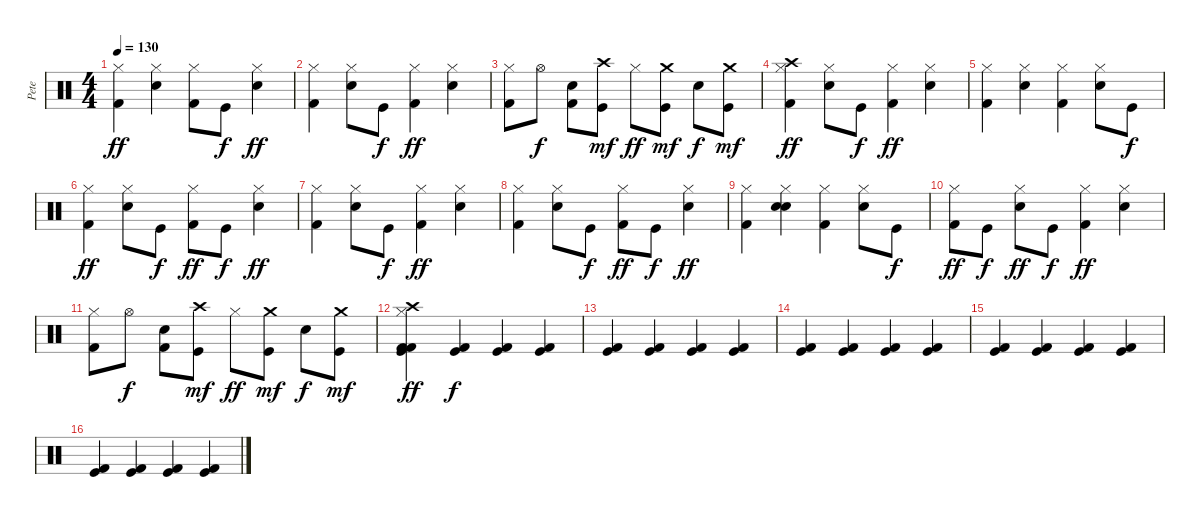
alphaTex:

\track ("Pete" "Pete") {instrument percussion}
\staff {score}
\articulation defaults
\ts (4 4)
\tempo 130
\clef neutral
\ks c
("Hi-Hat (closed)" "Kick (hit) 2").4{dy ff} ("Hi-Hat (closed)" "Snare (hit) 2").4 ("Hi-Hat (closed)" "Kick (hit) 2").8 "Kick (hit)".8{dy f} ("Hi-Hat (closed)" "Snare (hit) 2").4{dy ff} |
("Hi-Hat (closed)" "Kick (hit) 2").4 ("Hi-Hat (closed)" "Snare (hit) 2").8 "Kick (hit)".8{dy f} ("Hi-Hat (closed)" "Kick (hit) 2").4{dy ff} ("Hi-Hat (closed)" "Snare (hit) 2").4 |
("Hi-Hat (closed)" "Kick (hit) 2").8 "Hi-Hat (open)".8{dy f} ("Kick (hit) 2" "Snare (hit) 2").8 ("Kick (hit)" "Crash high (hit)").8{dy mf} "Hi-Hat (closed)".8{dy ff} ("Kick (hit)" "Crash medium (hit)").8{dy mf} "Snare (hit) 2".8{dy f} ("Crash medium (hit)" "Kick (hit)").8{dy mf} |
("Crash high (hit)" "Hi-Hat (closed)" "Kick (hit) 2").4{dy ff} ("Hi-Hat (closed)" "Snare (hit) 2").8 "Kick (hit)".8{dy f} ("Hi-Hat (closed)" "Kick (hit) 2").4{dy ff} ("Hi-Hat (closed)" "Snare (hit) 2").4 |
("Hi-Hat (closed)" "Kick (hit) 2").4 ("Hi-Hat (closed)" "Snare (hit) 2").4 ("Hi-Hat (closed)" "Kick (hit) 2").4 ("Hi-Hat (closed)" "Snare (hit) 2").8 "Kick (hit)".8{dy f} |
("Hi-Hat (closed)" "Kick (hit) 2").4{dy ff} ("Hi-Hat (closed)" "Snare (hit) 2").8 "Kick (hit)".8{dy f} ("Hi-Hat (closed)" "Kick (hit) 2").8{dy ff} "Kick (hit)".8{dy f} ("Hi-Hat (closed)" "Snare (hit) 2").4{dy ff} |
("Hi-Hat (closed)" "Kick (hit) 2").4 ("Hi-Hat (closed)" "Snare (hit) 2").8 "Kick (hit)".8{dy f} ("Hi-Hat (closed)" "Kick (hit) 2").4{dy ff} ("Hi-Hat (closed)" "Snare (hit) 2").4 |
("Hi-Hat (closed)" "Kick (hit) 2").4 ("Hi-Hat (closed)" "Snare (hit) 2").8 "Kick (hit)".8{dy f} ("Hi-Hat (closed)" "Kick (hit) 2").8{dy ff} "Kick (hit)".8{dy f} ("Hi-Hat (closed)" "Snare (hit) 2").4{dy ff} |
("Kick (hit) 2" "Hi-Hat (closed)").4 ("Hi-Hat (closed)" "Snare (hit) 2" "Snare (hit) 2").4 ("Hi-Hat (closed)" "Kick (hit) 2").4 ("Hi-Hat (closed)" "Snare (hit) 2").8 "Kick (hit)".8{dy f} |
("Hi-Hat (closed)" "Kick (hit) 2").8{dy ff} "Kick (hit)".8{dy f} ("Hi-Hat (closed)" "Snare (hit) 2").8{dy ff} "Kick (hit)".8{dy f} ("Hi-Hat (closed)" "Kick (hit) 2").4{dy ff} ("Hi-Hat (closed)" "Snare (hit) 2").4 |
("Hi-Hat (closed)" "Kick (hit) 2").8 "Hi-Hat (open)".8{dy f} ("Kick (hit) 2" "Snare (hit) 2").8 ("Kick (hit)" "Crash high (hit)").8{dy mf} "Hi-Hat (closed)".8{dy ff} ("Kick (hit)" "Crash medium (hit)").8{dy mf} "Snare (hit) 2".8{dy f} ("Crash medium (hit)" "Kick (hit)").8{dy mf} |
("Kick (hit)" "Kick (hit) 2" "Crash high (hit)" "Hi-Hat (closed)" "Kick (hit) 2").4{dy ff} ("Kick (hit)" "Kick (hit) 2").4{dy f} ("Kick (hit)" "Kick (hit) 2").4 ("Kick (hit)" "Kick (hit) 2").4 |
("Kick (hit)" "Kick (hit) 2").4 ("Kick (hit)" "Kick (hit) 2").4 ("Kick (hit)" "Kick (hit) 2").4 ("Kick (hit)" "Kick (hit) 2").4 |
("Kick (hit)" "Kick (hit) 2").4 ("Kick (hit)" "Kick (hit) 2").4 ("Kick (hit)" "Kick (hit) 2").4 ("Kick (hit)" "Kick (hit) 2").4 |
("Kick (hit)" "Kick (hit) 2").4 ("Kick (hit)" "Kick (hit) 2").4 ("Kick (hit)" "Kick (hit) 2").4 ("Kick (hit)" "Kick (hit) 2").4 |
("Kick (hit)" "Kick (hit) 2").4 ("Kick (hit)" "Kick (hit) 2").4 ("Kick (hit)" "Kick (hit) 2").4 ("Kick (hit)" "Kick (hit) 2").4
